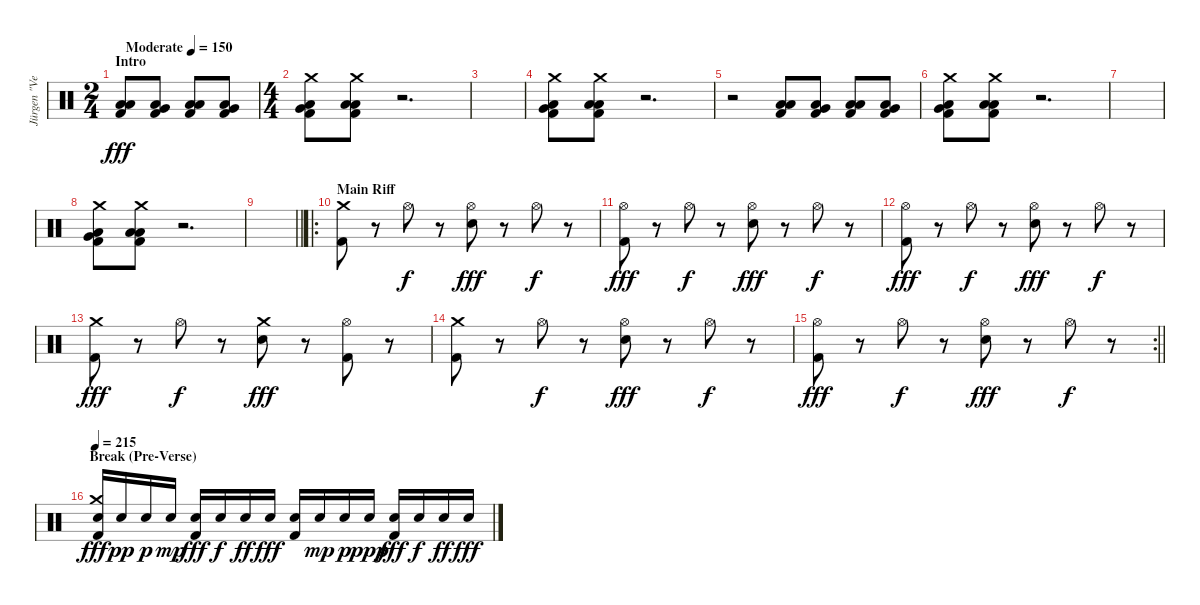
\track ("Jürgen \"Ventor\" Reil" "Jürgen \"Ve") {instrument percussion}
\staff {score}
\articulation defaults
\ts (2 4)
\section ("" "Intro")
\tempo (150 "Moderate")
\clef neutral
\ks c
("Low Tom (hit)" "Low Floor Tom (hit)" "Kick (hit) 2").8{dy fff} ("Very Low Tom (hit)" "Low Floor Tom (hit)" "Kick (hit) 2").8 ("Low Tom (hit)" "Low Floor Tom (hit)" "Kick (hit) 2").8 ("Very Low Tom (hit)" "Low Floor Tom (hit)" "Kick (hit) 2").8 |
\ts (4 4)
("Crash medium (hit)" "Low Tom (hit)" "Very Low Tom (hit)" "Kick (hit) 2").8 ("Crash medium (hit)" "Low Floor Tom (hit)" "Low Tom (hit)" "Kick (hit) 2").8 r.2{d} |
|
("Crash medium (hit)" "Low Tom (hit)" "Very Low Tom (hit)" "Kick (hit) 2").8 ("Crash medium (hit)" "Low Floor Tom (hit)" "Low Tom (hit)" "Kick (hit) 2").8 r.2{d} |
r.2 ("Low Tom (hit)" "Low Floor Tom (hit)" "Kick (hit) 2").8 ("Low Floor Tom (hit)" "Very Low Tom (hit)" "Kick (hit) 2").8 ("Low Tom (hit)" "Low Floor Tom (hit)" "Kick (hit) 2").8 ("Very Low Tom (hit)" "Low Tom (hit)" "Kick (hit) 2").8 |
("Crash medium (hit)" "Low Tom (hit)" "Very Low Tom (hit)" "Kick (hit) 2").8 ("Crash medium (hit)" "Low Floor Tom (hit)" "Low Tom (hit)" "Kick (hit) 2").8 r.2{d} |
|
("Crash medium (hit)" "Low Tom (hit)" "Very Low Tom (hit)" "Kick (hit) 2").8 ("Crash medium (hit)" "Low Floor Tom (hit)" "Low Tom (hit)" "Kick (hit) 2").8 r.2{d} |
\barLineRight lightlight
|
\ro
\section ("" "Main Riff")
("Crash medium (hit)" "Kick (hit) 2").8 r.8 "Hi-Hat (open)".8{dy f} r.8 ("Hi-Hat (open)" "Electric Snare (hit)").8{dy fff} r.8 "Hi-Hat (open)".8{dy f} r.8 |
("Hi-Hat (open)" "Kick (hit) 2").8{dy fff} r.8 "Hi-Hat (open)".8{dy f} r.8 ("Hi-Hat (open)" "Electric Snare (hit)").8{dy fff} r.8 "Hi-Hat (open)".8{dy f} r.8 |
("Hi-Hat (open)" "Kick (hit) 2").8{dy fff} r.8 "Hi-Hat (open)".8{dy f} r.8 ("Hi-Hat (open)" "Electric Snare (hit)").8{dy fff} r.8 "Hi-Hat (open)".8{dy f} r.8 |
("Crash medium (hit)" "Kick (hit) 2").8{dy fff} r.8 "Hi-Hat (open)".8{dy f} r.8 ("Crash medium (hit)" "Electric Snare (hit)").8{dy fff} r.8 ("Hi-Hat (open)" "Kick (hit) 2").8 r.8 |
("Crash medium (hit)" "Kick (hit) 2").8 r.8 "Hi-Hat (open)".8{dy f} r.8 ("Hi-Hat (open)" "Electric Snare (hit)").8{dy fff} r.8 "Hi-Hat (open)".8{dy f} r.8 |
\rc 2
\barLineRight lightlight
("Hi-Hat (open)" "Kick (hit) 2").8{dy fff} r.8 "Hi-Hat (open)".8{dy f} r.8 ("Hi-Hat (open)" "Electric Snare (hit)").8{dy fff} r.8 "Hi-Hat (open)".8{dy f} r.8 |
\section ("" "Break (Pre-Verse)")
\tempo 215
("Crash medium (hit)" "Electric Snare (hit)" "Kick (hit) 2").16{dy fff} "Electric Snare (hit)".16{dy pp} "Electric Snare (hit)".16{dy p} "Electric Snare (hit)".16{dy mp} ("Electric Snare (hit)" "Kick (hit) 2").16{dy fff} "Electric Snare (hit)".16{dy f} "Electric Snare (hit)".16{dy ff} "Electric Snare (hit)".16{dy fff} ("Electric Snare (hit)" "Kick (hit) 2").16 "Electric Snare (hit)".16{dy mp} "Electric Snare (hit)".16{dy p} "Electric Snare (hit)".16{dy ppp} ("Electric Snare (hit)" "Kick (hit) 2").16{dy fff} "Electric Snare (hit)".16{dy f} "Electric Snare (hit)".16{dy ff} "Electric Snare (hit)".16{dy fff}
